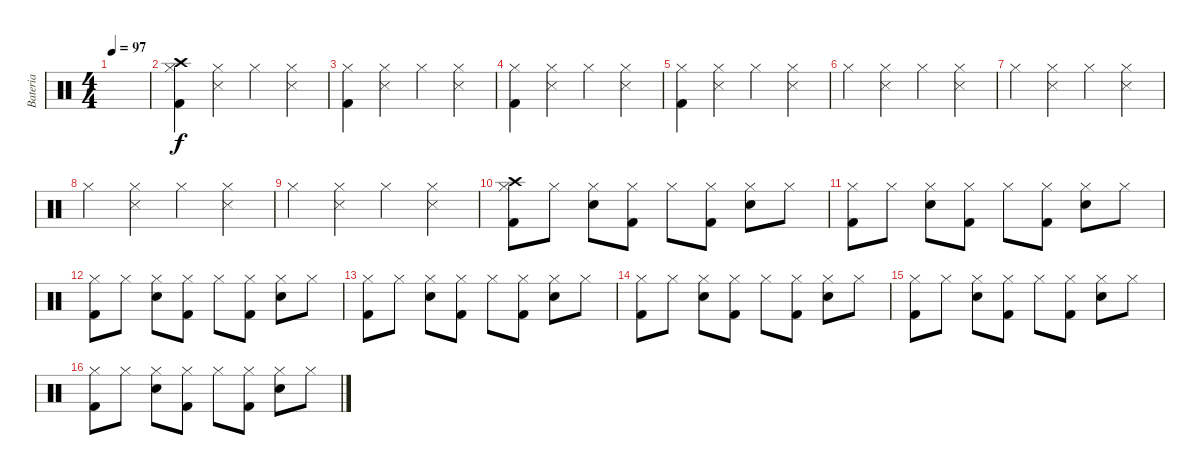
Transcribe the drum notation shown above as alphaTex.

\track ("Bateria" "Bateria") {instrument percussion}
\staff {score}
\articulation defaults
\ts (4 4)
\tempo 97
\clef neutral
\ks c
|
("Crash high (hit)" "Kick (hit) 2" "Hi-Hat (closed)").4 ("Snare (side stick) 3" "Hi-Hat (closed)").4 "Hi-Hat (closed)".4 ("Snare (side stick) 3" "Hi-Hat (closed)").4 |
("Kick (hit) 2" "Hi-Hat (closed)").4 ("Snare (side stick) 3" "Hi-Hat (closed)").4 "Hi-Hat (closed)".4 ("Snare (side stick) 3" "Hi-Hat (closed)").4 |
("Kick (hit) 2" "Hi-Hat (closed)").4 ("Snare (side stick) 3" "Hi-Hat (closed)").4 "Hi-Hat (closed)".4 ("Snare (side stick) 3" "Hi-Hat (closed)").4 |
("Kick (hit) 2" "Hi-Hat (closed)").4 ("Snare (side stick) 3" "Hi-Hat (closed)").4 "Hi-Hat (closed)".4 ("Snare (side stick) 3" "Hi-Hat (closed)").4 |
"Hi-Hat (closed)".4 ("Snare (side stick) 3" "Hi-Hat (closed)").4 "Hi-Hat (closed)".4 ("Snare (side stick) 3" "Hi-Hat (closed)").4 |
"Hi-Hat (closed)".4 ("Snare (side stick) 3" "Hi-Hat (closed)").4 "Hi-Hat (closed)".4 ("Snare (side stick) 3" "Hi-Hat (closed)").4 |
"Hi-Hat (closed)".4 ("Snare (side stick) 3" "Hi-Hat (closed)").4 "Hi-Hat (closed)".4 ("Snare (side stick) 3" "Hi-Hat (closed)").4 |
"Hi-Hat (closed)".4 ("Snare (side stick) 3" "Hi-Hat (closed)").4 "Hi-Hat (closed)".4 ("Snare (side stick) 3" "Hi-Hat (closed)").4 |
("Crash high (hit)" "Kick (hit) 2" "Hi-Hat (closed)").8 "Hi-Hat (closed)".8 ("Snare (hit) 2" "Hi-Hat (closed)").8 ("Kick (hit) 2" "Hi-Hat (closed)").8 "Hi-Hat (closed)".8 ("Kick (hit) 2" "Hi-Hat (closed)").8 ("Snare (hit) 2" "Hi-Hat (closed)").8 "Hi-Hat (closed)".8 |
("Kick (hit) 2" "Hi-Hat (closed)").8 "Hi-Hat (closed)".8 ("Snare (hit) 2" "Hi-Hat (closed)").8 ("Kick (hit) 2" "Hi-Hat (closed)").8 "Hi-Hat (closed)".8 ("Kick (hit) 2" "Hi-Hat (closed)").8 ("Snare (hit) 2" "Hi-Hat (closed)").8 "Hi-Hat (closed)".8 |
("Kick (hit) 2" "Hi-Hat (closed)").8 "Hi-Hat (closed)".8 ("Snare (hit) 2" "Hi-Hat (closed)").8 ("Kick (hit) 2" "Hi-Hat (closed)").8 "Hi-Hat (closed)".8 ("Kick (hit) 2" "Hi-Hat (closed)").8 ("Snare (hit) 2" "Hi-Hat (closed)").8 "Hi-Hat (closed)".8 |
("Kick (hit) 2" "Hi-Hat (closed)").8 "Hi-Hat (closed)".8 ("Snare (hit) 2" "Hi-Hat (closed)").8 ("Kick (hit) 2" "Hi-Hat (closed)").8 "Hi-Hat (closed)".8 ("Kick (hit) 2" "Hi-Hat (closed)").8 ("Snare (hit) 2" "Hi-Hat (closed)").8 "Hi-Hat (closed)".8 |
("Kick (hit) 2" "Hi-Hat (closed)").8 "Hi-Hat (closed)".8 ("Snare (hit) 2" "Hi-Hat (closed)").8 ("Kick (hit) 2" "Hi-Hat (closed)").8 "Hi-Hat (closed)".8 ("Kick (hit) 2" "Hi-Hat (closed)").8 ("Snare (hit) 2" "Hi-Hat (closed)").8 "Hi-Hat (closed)".8 |
("Kick (hit) 2" "Hi-Hat (closed)").8 "Hi-Hat (closed)".8 ("Snare (hit) 2" "Hi-Hat (closed)").8 ("Kick (hit) 2" "Hi-Hat (closed)").8 "Hi-Hat (closed)".8 ("Kick (hit) 2" "Hi-Hat (closed)").8 ("Snare (hit) 2" "Hi-Hat (closed)").8 "Hi-Hat (closed)".8 |
("Kick (hit) 2" "Hi-Hat (closed)").8 "Hi-Hat (closed)".8 ("Snare (hit) 2" "Hi-Hat (closed)").8 ("Kick (hit) 2" "Hi-Hat (closed)").8 "Hi-Hat (closed)".8 ("Kick (hit) 2" "Hi-Hat (closed)").8 ("Snare (hit) 2" "Hi-Hat (closed)").8 "Hi-Hat (closed)".8
